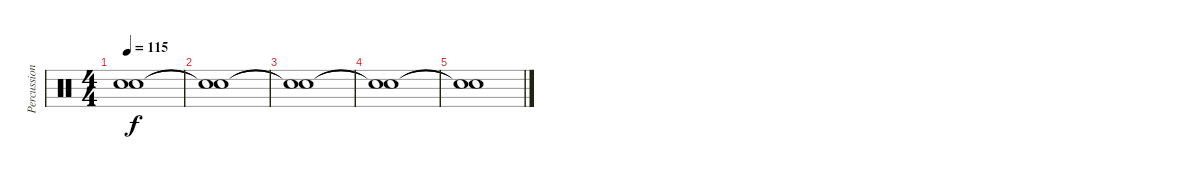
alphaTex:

\track ("Percussion" "Percussion") {instrument percussion}
\staff {score}
\articulation defaults
\ts (4 4)
\tempo 115
\clef neutral
\ks c
("Snare (hit)"{t} "Snare (hit)"{t}).1{dy f} |
("Snare (hit)"{t} "Snare (hit)"{t}).1 |
("Snare (hit)"{t} "Snare (hit)"{t}).1 |
("Snare (hit)"{t} "Snare (hit)"{t}).1 |
("Snare (hit)"{t} "Snare (hit)"{t}).1
